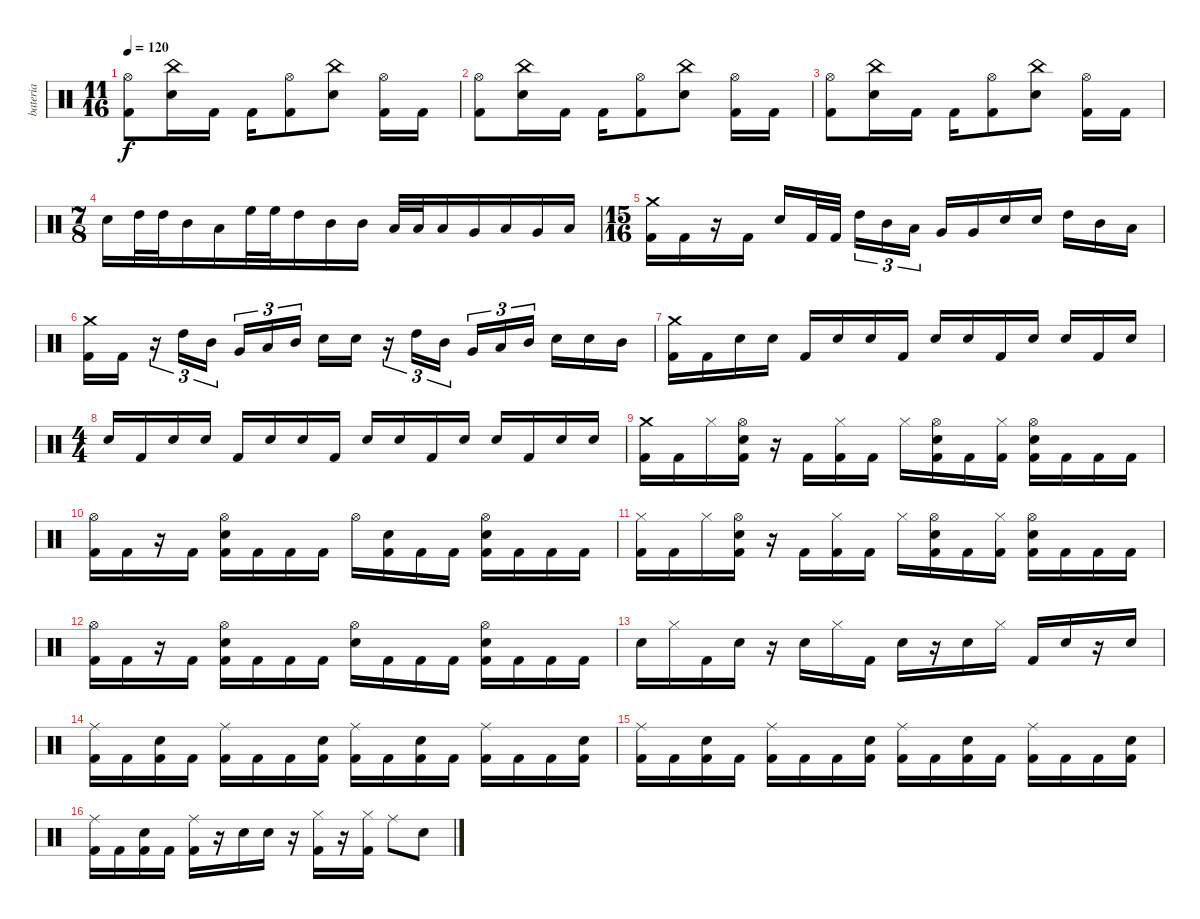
\track ("bateria" "bateria") {instrument percussion}
\staff {score}
\articulation defaults
\ts (11 16)
\tempo 120
\clef neutral
\ks c
("Hi-Hat (open)" "Kick (hit) 2").8{dy f} ("China (hit)" "Electric Snare (hit)").16 "Kick (hit) 2".16 "Kick (hit) 2".16 ("Hi-Hat (open)" "Kick (hit) 2").8 ("China (hit)" "Electric Snare (hit)").8 ("Hi-Hat (open)" "Kick (hit) 2").16 "Kick (hit) 2".16 |
("Hi-Hat (open)" "Kick (hit) 2").8 ("China (hit)" "Electric Snare (hit)").16 "Kick (hit) 2".16 "Kick (hit) 2".16 ("Hi-Hat (open)" "Kick (hit) 2").8 ("China (hit)" "Electric Snare (hit)").8 ("Hi-Hat (open)" "Kick (hit) 2").16 "Kick (hit) 2".16 |
("Hi-Hat (open)" "Kick (hit) 2").8 ("China (hit)" "Electric Snare (hit)").16 "Kick (hit) 2".16 "Kick (hit) 2".16 ("Hi-Hat (open)" "Kick (hit) 2").8 ("China (hit)" "Electric Snare (hit)").8 ("Hi-Hat (open)" "Kick (hit) 2").16 "Kick (hit) 2".16 |
\ts (7 8)
"Electric Snare (hit)".16 "High Tom (hit)".32 "High Tom (hit)".32 "Mid Tom (hit)".16 "Low Tom (hit)".16 "High Floor Tom (hit)".32 "High Floor Tom (hit)".32 "High Tom (hit)".16 "Mid Tom (hit)".16 "Mid Tom (hit)".16 "Low Tom (hit)".32 "Low Tom (hit)".32 "Low Tom (hit)".16 "Very Low Tom (hit)".16 "Low Tom (hit)".16 "Very Low Tom (hit)".16 "Low Floor Tom (hit)".16 |
\ts (15 16)
("Crash medium (hit)" "Kick (hit) 2").16 "Kick (hit) 2".16 r.16 "Kick (hit) 2".16 "Electric Snare (hit)".16 "Kick (hit) 2".32 "Kick (hit) 2".32 "High Tom (hit)".16{tu (3 2)} "Mid Tom (hit)".16{tu (3 2)} "Low Tom (hit)".16{tu (3 2)} "Very Low Tom (hit)".16 "Very Low Tom (hit)".16 "Electric Snare (hit)".16 "Electric Snare (hit)".16 "High Tom (hit)".16 "Mid Tom (hit)".16 "Low Tom (hit)".16 |
("Crash medium (hit)" "Kick (hit) 2").16 "Kick (hit) 2".16 r.16{tu (3 2)} "High Tom (hit)".16{tu (3 2)} "Mid Tom (hit)".16{tu (3 2)} "Very Low Tom (hit)".16{tu (3 2)} "Low Tom (hit)".16{tu (3 2)} "Mid Tom (hit)".16{tu (3 2)} "Electric Snare (hit)".16 "Electric Snare (hit)".16 r.16{tu (3 2)} "High Tom (hit)".16{tu (3 2)} "Mid Tom (hit)".16{tu (3 2)} "Very Low Tom (hit)".16{tu (3 2)} "Low Tom (hit)".16{tu (3 2)} "Mid Tom (hit)".16{tu (3 2)} "Electric Snare (hit)".16 "Electric Snare (hit)".16 "Mid Tom (hit)".16 |
("Crash medium (hit)" "Kick (hit) 2").16 "Kick (hit) 2".16 "Electric Snare (hit)".16 "Electric Snare (hit)".16 "Kick (hit) 2".16 "Electric Snare (hit)".16 "Electric Snare (hit)".16 "Kick (hit) 2".16 "Electric Snare (hit)".16 "Electric Snare (hit)".16 "Kick (hit) 2".16 "Electric Snare (hit)".16 "Electric Snare (hit)".16 "Kick (hit) 2".16 "Electric Snare (hit)".16 |
\ts (4 4)
"Electric Snare (hit)".16 "Kick (hit) 2".16 "Electric Snare (hit)".16 "Electric Snare (hit)".16 "Kick (hit) 2".16 "Electric Snare (hit)".16 "Electric Snare (hit)".16 "Kick (hit) 2".16 "Electric Snare (hit)".16 "Electric Snare (hit)".16 "Kick (hit) 2".16 "Electric Snare (hit)".16 "Electric Snare (hit)".16 "Kick (hit) 2".16 "Electric Snare (hit)".16 "Electric Snare (hit)".16 |
("Crash medium (hit)" "Kick (hit) 2").16 "Kick (hit) 2".16 "Hi-Hat (closed)".16 ("Hi-Hat (open)" "Electric Snare (hit)" "Kick (hit) 2").16 r.16 "Kick (hit) 2".16 ("Hi-Hat (closed)" "Kick (hit) 2").16 "Kick (hit) 2".16 "Hi-Hat (closed)".16 ("Hi-Hat (open)" "Electric Snare (hit)" "Kick (hit) 2").16 "Kick (hit) 2".16 ("Hi-Hat (closed)" "Kick (hit) 2").16 ("Hi-Hat (open)" "Electric Snare (hit)" "Kick (hit) 2").16 "Kick (hit) 2".16 "Kick (hit) 2".16 "Kick (hit) 2".16 |
("Hi-Hat (open)" "Kick (hit) 2").16 "Kick (hit) 2".16 r.16 "Kick (hit) 2".16 ("Hi-Hat (open)" "Electric Snare (hit)" "Kick (hit) 2").16 "Kick (hit) 2".16 "Kick (hit) 2".16 "Kick (hit) 2".16 "Hi-Hat (open)".16 ("Electric Snare (hit)" "Kick (hit) 2").16 "Kick (hit) 2".16 "Kick (hit) 2".16 ("Hi-Hat (open)" "Electric Snare (hit)" "Kick (hit) 2").16 "Kick (hit) 2".16 "Kick (hit) 2".16 "Kick (hit) 2".16 |
("Hi-Hat (closed)" "Kick (hit) 2").16 "Kick (hit) 2".16 "Hi-Hat (closed)".16 ("Hi-Hat (open)" "Electric Snare (hit)" "Kick (hit) 2").16 r.16 "Kick (hit) 2".16 ("Hi-Hat (closed)" "Kick (hit) 2").16 "Kick (hit) 2".16 "Hi-Hat (closed)".16 ("Hi-Hat (open)" "Electric Snare (hit)" "Kick (hit) 2").16 "Kick (hit) 2".16 ("Hi-Hat (closed)" "Kick (hit) 2").16 ("Hi-Hat (open)" "Electric Snare (hit)" "Kick (hit) 2").16 "Kick (hit) 2".16 "Kick (hit) 2".16 "Kick (hit) 2".16 |
("Hi-Hat (open)" "Kick (hit) 2").16 "Kick (hit) 2".16 r.16 "Kick (hit) 2".16 ("Hi-Hat (open)" "Electric Snare (hit)" "Kick (hit) 2").16 "Kick (hit) 2".16 "Kick (hit) 2".16 "Kick (hit) 2".16 ("Hi-Hat (open)" "Electric Snare (hit)").16 "Kick (hit) 2".16 "Kick (hit) 2".16 "Kick (hit) 2".16 ("Hi-Hat (open)" "Electric Snare (hit)" "Kick (hit) 2").16 "Kick (hit) 2".16 "Kick (hit) 2".16 "Kick (hit) 2".16 |
"Electric Snare (hit)".16 "Hi-Hat (closed)".16 "Kick (hit) 2".16 "Electric Snare (hit)".16 r.16 "Electric Snare (hit)".16 "Hi-Hat (closed)".16 "Kick (hit) 2".16 "Electric Snare (hit)".16 r.16 "Electric Snare (hit)".16 "Hi-Hat (closed)".16 "Kick (hit) 2".16 "Electric Snare (hit)".16 r.16 "Electric Snare (hit)".16 |
("Ride (middle)" "Kick (hit) 2").16 "Kick (hit) 2".16 ("Electric Snare (hit)" "Kick (hit) 2").16 "Kick (hit) 2".16 ("Ride (middle)" "Kick (hit) 2").16 "Kick (hit) 2".16 "Kick (hit) 2".16 ("Electric Snare (hit)" "Kick (hit) 2").16 ("Ride (middle)" "Kick (hit) 2").16 "Kick (hit) 2".16 ("Electric Snare (hit)" "Kick (hit) 2").16 "Kick (hit) 2".16 ("Ride (middle)" "Kick (hit) 2").16 "Kick (hit) 2".16 "Kick (hit) 2".16 ("Electric Snare (hit)" "Kick (hit) 2").16 |
("Ride (middle)" "Kick (hit) 2").16 "Kick (hit) 2".16 ("Electric Snare (hit)" "Kick (hit) 2").16 "Kick (hit) 2".16 ("Ride (middle)" "Kick (hit) 2").16 "Kick (hit) 2".16 "Kick (hit) 2".16 ("Electric Snare (hit)" "Kick (hit) 2").16 ("Ride (middle)" "Kick (hit) 2").16 "Kick (hit) 2".16 ("Electric Snare (hit)" "Kick (hit) 2").16 "Kick (hit) 2".16 ("Ride (middle)" "Kick (hit) 2").16 "Kick (hit) 2".16 "Kick (hit) 2".16 ("Electric Snare (hit)" "Kick (hit) 2").16 |
("Ride (middle)" "Kick (hit) 2").16 "Kick (hit) 2".16 ("Electric Snare (hit)" "Kick (hit) 2").16 "Kick (hit) 2".16 ("Ride (middle)" "Kick (hit) 2").16 r.16 "Electric Snare (hit)".16 "Electric Snare (hit)".16 r.16 ("Hi-Hat (closed)" "Kick (hit) 2").16 r.16 ("Hi-Hat (closed)" "Kick (hit) 2").16 "Ride (middle)".8 "Electric Snare (hit)".8
